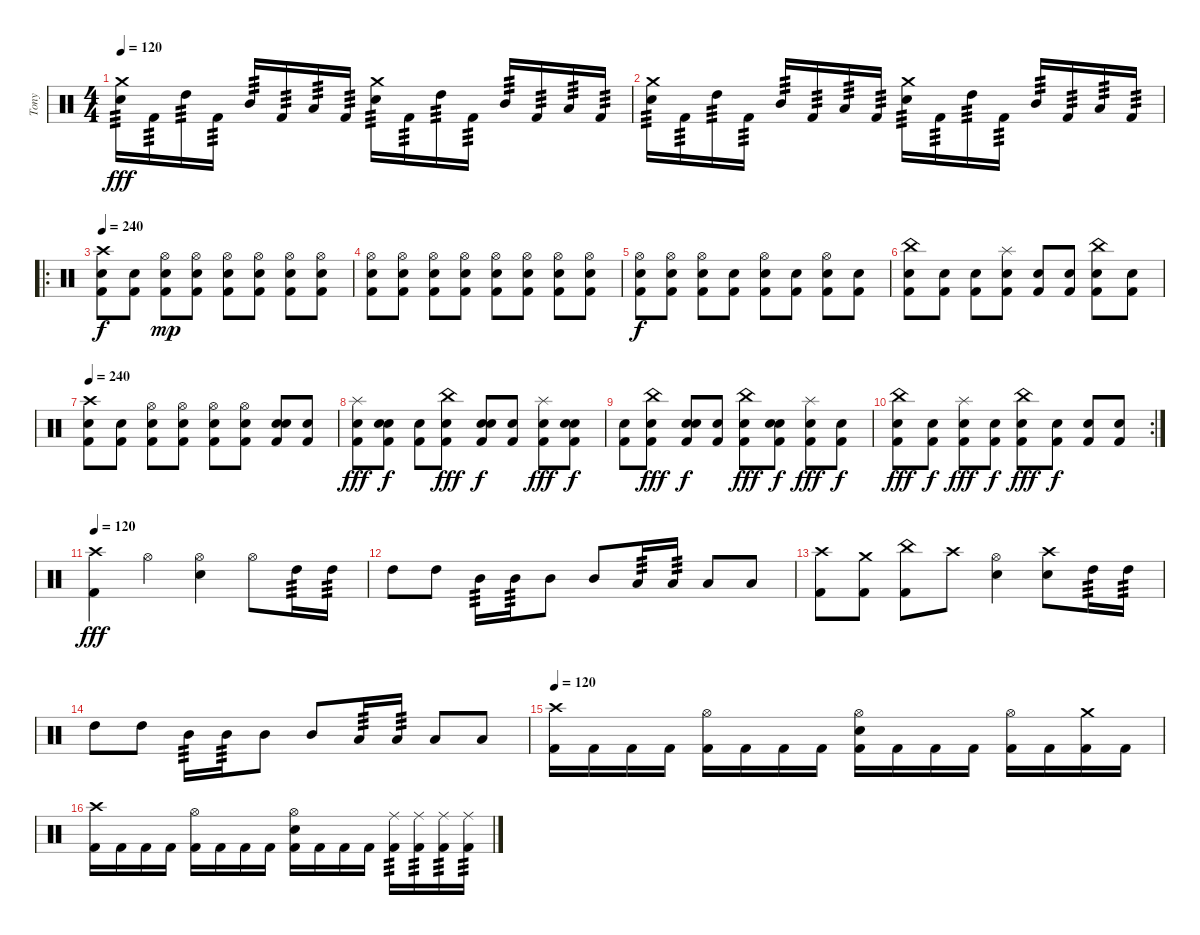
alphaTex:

\track ("Tony" "Tony") {instrument percussion}
\staff {score}
\articulation defaults
\ts (4 4)
\tempo 120
\clef neutral
\ks c
("Crash medium (hit)" "Snare (hit) 2").16{tp 3 dy fff} "Kick (hit) 2".16{tp 3} "High Tom (hit)".16{tp 3} "Kick (hit) 2".16{tp 3} "Mid Tom (hit)".16{tp 3} "Kick (hit) 2".16{tp 3} "Low Tom (hit)".16{tp 3} "Kick (hit) 2".16{tp 3} ("Crash medium (hit)" "Snare (hit) 2").16{tp 3} "Kick (hit) 2".16{tp 3} "High Tom (hit)".16{tp 3} "Kick (hit) 2".16{tp 3} "Mid Tom (hit)".16{tp 3} "Kick (hit) 2".16{tp 3} "Low Tom (hit)".16{tp 3} "Kick (hit) 2".16{tp 3} |
("Crash medium (hit)" "Snare (hit) 2").16{tp 3} "Kick (hit) 2".16{tp 3} "High Tom (hit)".16{tp 3} "Kick (hit) 2".16{tp 3} "Mid Tom (hit)".16{tp 3} "Kick (hit) 2".16{tp 3} "Low Tom (hit)".16{tp 3} "Kick (hit) 2".16{tp 3} ("Crash medium (hit)" "Snare (hit) 2").16{tp 3} "Kick (hit) 2".16{tp 3} "High Tom (hit)".16{tp 3} "Kick (hit) 2".16{tp 3} "Mid Tom (hit)".16{tp 3} "Kick (hit) 2".16{tp 3} "Low Tom (hit)".16{tp 3} "Kick (hit) 2".16{tp 3} |
\ro
\tempo 240
("Crash high (hit)" "Snare (hit) 2" "Kick (hit) 2").8{dy f} ("Snare (hit) 2" "Kick (hit) 2").8 ("Hi-Hat (open)" "Snare (hit) 2" "Kick (hit) 2").8{dy mp} ("Hi-Hat (open)" "Snare (hit) 2" "Kick (hit) 2").8 ("Hi-Hat (open)" "Snare (hit) 2" "Kick (hit) 2").8 ("Hi-Hat (open)" "Snare (hit) 2" "Kick (hit) 2").8 ("Hi-Hat (open)" "Snare (hit) 2" "Kick (hit) 2").8 ("Hi-Hat (open)" "Snare (hit) 2" "Kick (hit) 2").8 |
("Hi-Hat (open)" "Snare (hit) 2" "Kick (hit) 2").8 ("Hi-Hat (open)" "Snare (hit) 2" "Kick (hit) 2").8 ("Hi-Hat (open)" "Snare (hit) 2" "Kick (hit) 2").8 ("Hi-Hat (open)" "Snare (hit) 2" "Kick (hit) 2").8 ("Hi-Hat (open)" "Snare (hit) 2" "Kick (hit) 2").8 ("Hi-Hat (open)" "Snare (hit) 2" "Kick (hit) 2").8 ("Hi-Hat (open)" "Snare (hit) 2" "Kick (hit) 2").8 ("Hi-Hat (open)" "Snare (hit) 2" "Kick (hit) 2").8 |
("Hi-Hat (open)" "Snare (hit) 2" "Kick (hit) 2").8{dy f} ("Hi-Hat (open)" "Snare (hit) 2" "Kick (hit) 2").8 ("Hi-Hat (open)" "Snare (hit) 2" "Kick (hit) 2").8 ("Snare (hit) 2" "Kick (hit) 2").8 ("Hi-Hat (open)" "Snare (hit) 2" "Kick (hit) 2").8 ("Snare (hit) 2" "Kick (hit) 2").8 ("Hi-Hat (open)" "Snare (hit) 2" "Kick (hit) 2").8 ("Snare (hit) 2" "Kick (hit) 2").8 |
("China (hit)" "Snare (hit) 2" "Kick (hit) 2").8 ("Snare (hit) 2" "Kick (hit) 2").8 ("Snare (hit) 2" "Kick (hit) 2").8 ("Splash (hit)" "Snare (hit) 2" "Kick (hit) 2").8 ("Snare (hit) 2" "Kick (hit) 2").8 ("Snare (hit) 2" "Kick (hit) 2").8 ("China (hit)" "Snare (hit) 2" "Kick (hit) 2").8 ("Snare (hit) 2" "Kick (hit) 2").8 |
\tempo 240
("Crash high (hit)" "Snare (hit) 2" "Kick (hit) 2").8 ("Snare (hit) 2" "Kick (hit) 2").8 ("Hi-Hat (open)" "Snare (hit) 2" "Kick (hit) 2").8 ("Hi-Hat (open)" "Snare (hit) 2" "Kick (hit) 2").8 ("Hi-Hat (open)" "Snare (hit) 2" "Kick (hit) 2").8 ("Hi-Hat (open)" "Snare (hit) 2" "Kick (hit) 2").8 ("Snare (hit)" "Snare (hit) 2" "Kick (hit) 2").8 ("Snare (hit) 2" "Kick (hit) 2").8 |
("Splash (hit)" "Snare (hit) 2" "Kick (hit) 2").8{dy fff} ("Snare (hit)" "Snare (hit) 2" "Kick (hit) 2").8{dy f} ("Snare (hit) 2" "Kick (hit) 2").8 ("China (hit)" "Snare (hit) 2" "Kick (hit) 2").8{dy fff} ("Snare (hit)" "Snare (hit) 2" "Kick (hit) 2").8{dy f} ("Snare (hit) 2" "Kick (hit) 2").8 ("Splash (hit)" "Snare (hit) 2" "Kick (hit) 2").8{dy fff} ("Snare (hit)" "Snare (hit) 2" "Kick (hit) 2").8{dy f} |
("Snare (hit) 2" "Kick (hit) 2").8 ("China (hit)" "Snare (hit) 2" "Kick (hit) 2").8{dy fff} ("Snare (hit)" "Snare (hit) 2" "Kick (hit) 2").8{dy f} ("Snare (hit) 2" "Kick (hit) 2").8 ("China (hit)" "Snare (hit) 2" "Kick (hit) 2").8{dy fff} ("Snare (hit)" "Snare (hit) 2" "Kick (hit) 2").8{dy f} ("Splash (hit)" "Snare (hit) 2" "Kick (hit) 2").8{dy fff} ("Snare (hit) 2" "Kick (hit) 2").8{dy f} |
\rc 2
("China (hit)" "Snare (hit) 2" "Kick (hit) 2").8{dy fff} ("Snare (hit) 2" "Kick (hit) 2").8{dy f} ("Splash (hit)" "Snare (hit) 2" "Kick (hit) 2").8{dy fff} ("Snare (hit) 2" "Kick (hit) 2").8{dy f} ("China (hit)" "Snare (hit) 2" "Kick (hit) 2").8{dy fff} ("Snare (hit) 2" "Kick (hit) 2").8{dy f} ("Snare (hit) 2" "Kick (hit) 2").8 ("Snare (hit) 2" "Kick (hit) 2").8 |
\tempo 120
("Crash high (hit)" "Kick (hit) 2").4{dy fff} "Hi-Hat (open)".4 ("Hi-Hat (open)" "Snare (hit) 2").4 "Hi-Hat (open)".8 "High Tom (hit)".16{tp 3} "High Tom (hit)".16{tp 3} |
"High Tom (hit)".8 "High Tom (hit)".8 "Mid Tom (hit)".16{tp 3} "Mid Tom (hit)".16{tp 3} "Mid Tom (hit)".8 "Mid Tom (hit)".8 "Low Tom (hit)".16{tp 3} "Low Tom (hit)".16{tp 3} "Low Tom (hit)".8 "Low Tom (hit)".8 |
("Crash high (hit)" "Kick (hit) 2").8 ("Crash medium (hit)" "Kick (hit) 2").8 ("China (hit)" "Kick (hit) 2").8 "Crash high (hit)".8 ("Hi-Hat (open)" "Snare (hit) 2").4 ("Crash high (hit)" "Snare (hit) 2").8 "High Tom (hit)".16{tp 3} "High Tom (hit)".16{tp 3} |
"High Tom (hit)".8 "High Tom (hit)".8 "Mid Tom (hit)".16{tp 3} "Mid Tom (hit)".16{tp 3} "Mid Tom (hit)".8 "Mid Tom (hit)".8 "Low Tom (hit)".16{tp 3} "Low Tom (hit)".16{tp 3} "Low Tom (hit)".8 "Low Tom (hit)".8 |
\tempo 120
("Crash high (hit)" "Kick (hit) 2").16 "Kick (hit) 2".16 "Kick (hit) 2".16 "Kick (hit) 2".16 ("Hi-Hat (open)" "Kick (hit) 2").16 "Kick (hit) 2".16 "Kick (hit) 2".16 "Kick (hit) 2".16 ("Hi-Hat (open)" "Snare (hit) 2" "Kick (hit) 2").16 "Kick (hit) 2".16 "Kick (hit) 2".16 "Kick (hit) 2".16 ("Hi-Hat (open)" "Kick (hit) 2").16 "Kick (hit) 2".16 ("Crash medium (hit)" "Kick (hit) 2").16 "Kick (hit) 2".16 |
("Crash high (hit)" "Kick (hit) 2").16 "Kick (hit) 2".16 "Kick (hit) 2".16 "Kick (hit) 2".16 ("Hi-Hat (open)" "Kick (hit) 2").16 "Kick (hit) 2".16 "Kick (hit) 2".16 "Kick (hit) 2".16 ("Hi-Hat (open)" "Snare (hit) 2" "Kick (hit) 2").16 "Kick (hit) 2".16 "Kick (hit) 2".16 "Kick (hit) 2".16 ("Ride (middle)" "Kick (hit) 2").16{tp 3} ("Ride (middle)" "Kick (hit) 2").16{tp 3} ("Ride (middle)" "Kick (hit) 2").16{tp 3} ("Ride (middle)" "Kick (hit) 2").16{tp 3}
